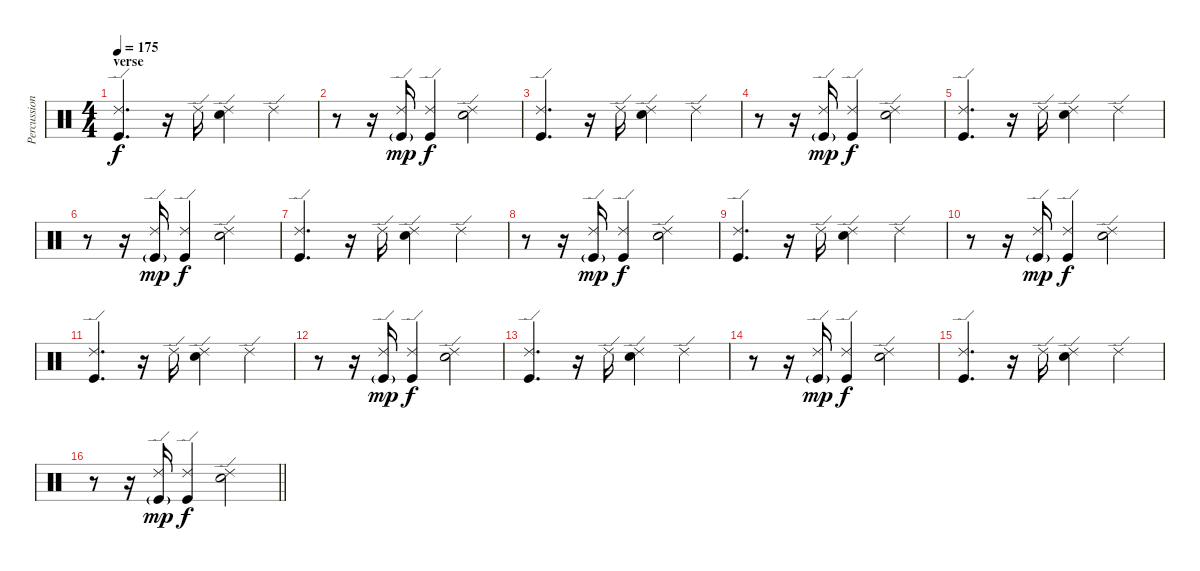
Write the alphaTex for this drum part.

\track ("Percussion" "Percussion") {instrument percussion}
\staff {score}
\articulation defaults
\ts (4 4)
\section ("" "verse")
\tempo 175
\clef neutral
\ks c
("Ride (edge) 2" "Kick (hit)").4{d dy f} r.16 "Ride (edge) 2".16 ("Ride (edge) 2" "Hand Clap (hit)").4 "Ride (edge) 2".4 |
r.8 r.16 ("Ride (edge) 2" "Kick (hit)"{g}).16{dy mp} ("Ride (edge) 2" "Kick (hit)").4{dy f} ("Ride (edge) 2" "Hand Clap (hit)").2 |
("Ride (edge) 2" "Kick (hit)").4{d} r.16 "Ride (edge) 2".16 ("Ride (edge) 2" "Hand Clap (hit)").4 "Ride (edge) 2".4 |
r.8 r.16 ("Ride (edge) 2" "Kick (hit)"{g}).16{dy mp} ("Ride (edge) 2" "Kick (hit)").4{dy f} ("Ride (edge) 2" "Hand Clap (hit)").2 |
("Ride (edge) 2" "Kick (hit)").4{d} r.16 "Ride (edge) 2".16 ("Ride (edge) 2" "Hand Clap (hit)").4 "Ride (edge) 2".4 |
r.8 r.16 ("Ride (edge) 2" "Kick (hit)"{g}).16{dy mp} ("Ride (edge) 2" "Kick (hit)").4{dy f} ("Ride (edge) 2" "Hand Clap (hit)").2 |
("Ride (edge) 2" "Kick (hit)").4{d} r.16 "Ride (edge) 2".16 ("Ride (edge) 2" "Hand Clap (hit)").4 "Ride (edge) 2".4 |
r.8 r.16 ("Ride (edge) 2" "Kick (hit)"{g}).16{dy mp} ("Ride (edge) 2" "Kick (hit)").4{dy f} ("Ride (edge) 2" "Hand Clap (hit)").2 |
("Ride (edge) 2" "Kick (hit)").4{d} r.16 "Ride (edge) 2".16 ("Ride (edge) 2" "Hand Clap (hit)").4 "Ride (edge) 2".4 |
r.8 r.16 ("Ride (edge) 2" "Kick (hit)"{g}).16{dy mp} ("Ride (edge) 2" "Kick (hit)").4{dy f} ("Ride (edge) 2" "Hand Clap (hit)").2 |
("Ride (edge) 2" "Kick (hit)").4{d} r.16 "Ride (edge) 2".16 ("Ride (edge) 2" "Hand Clap (hit)").4 "Ride (edge) 2".4 |
r.8 r.16 ("Ride (edge) 2" "Kick (hit)"{g}).16{dy mp} ("Ride (edge) 2" "Kick (hit)").4{dy f} ("Ride (edge) 2" "Hand Clap (hit)").2 |
("Ride (edge) 2" "Kick (hit)").4{d} r.16 "Ride (edge) 2".16 ("Ride (edge) 2" "Hand Clap (hit)").4 "Ride (edge) 2".4 |
r.8 r.16 ("Ride (edge) 2" "Kick (hit)"{g}).16{dy mp} ("Ride (edge) 2" "Kick (hit)").4{dy f} ("Ride (edge) 2" "Hand Clap (hit)").2 |
("Ride (edge) 2" "Kick (hit)").4{d} r.16 "Ride (edge) 2".16 ("Ride (edge) 2" "Hand Clap (hit)").4 "Ride (edge) 2".4 |
\barLineRight lightlight
r.8 r.16 ("Ride (edge) 2" "Kick (hit)"{g}).16{dy mp} ("Ride (edge) 2" "Kick (hit)").4{dy f} ("Ride (edge) 2" "Hand Clap (hit)").2
